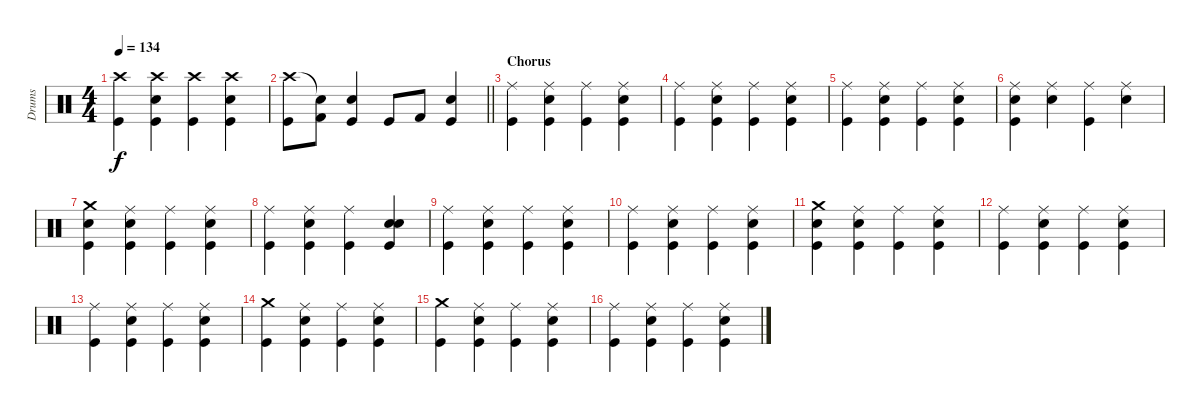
\track ("Drums" "Drums") {solo instrument percussion}
\staff {score}
\articulation defaults
\ts (4 4)
\tempo 134
\clef neutral
\ks c
("Crash high (hit)" "Kick (hit)").4{dy f} ("Crash high (hit)" "Kick (hit)" "Snare (hit) 2").4 ("Crash high (hit)" "Kick (hit)").4 ("Crash high (hit)" "Kick (hit)" "Snare (hit) 2").4 |
\barLineRight lightlight
("Crash high (hit)" "Kick (hit)").8 ("Snare (hit)"{t} "Kick (hit) 2").8 ("Kick (hit)" "Snare (hit) 2").4 "Kick (hit)".8 "Kick (hit) 2".8 ("Kick (hit)" "Snare (hit) 2").4 |
\section ("" "Chorus")
("Ride (middle)" "Kick (hit)").4 ("Ride (middle)" "Kick (hit)" "Snare (hit) 2").4 ("Ride (middle)" "Kick (hit)").4 ("Ride (middle)" "Kick (hit)" "Snare (hit) 2").4 |
("Ride (middle)" "Kick (hit)").4 ("Ride (middle)" "Kick (hit)" "Snare (hit) 2").4 ("Ride (middle)" "Kick (hit)").4 ("Ride (middle)" "Kick (hit)" "Snare (hit) 2").4 |
("Ride (middle)" "Kick (hit)").4 ("Ride (middle)" "Kick (hit)" "Snare (hit) 2").4 ("Ride (middle)" "Kick (hit)").4 ("Ride (middle)" "Kick (hit)" "Snare (hit) 2").4 |
("Ride (middle)" "Kick (hit)" "Snare (hit) 2").4 ("Ride (middle)" "Snare (hit) 2").4 ("Ride (middle)" "Kick (hit)").4 ("Ride (middle)" "Snare (hit) 2").4 |
("Crash medium (hit)" "Snare (hit) 2" "Kick (hit)").4 ("Ride (middle)" "Kick (hit)" "Snare (hit) 2").4 ("Ride (middle)" "Kick (hit)").4 ("Ride (middle)" "Kick (hit)" "Snare (hit) 2").4 |
("Ride (middle)" "Kick (hit)").4 ("Ride (middle)" "Kick (hit)" "Snare (hit) 2").4 ("Ride (middle)" "Kick (hit)").4 ("Snare (hit)" "Kick (hit)" "Snare (hit) 2").4 |
("Ride (middle)" "Kick (hit)").4 ("Ride (middle)" "Kick (hit)" "Snare (hit) 2").4 ("Ride (middle)" "Kick (hit)").4 ("Ride (middle)" "Kick (hit)" "Snare (hit) 2").4 |
("Ride (middle)" "Kick (hit)").4 ("Ride (middle)" "Kick (hit)" "Snare (hit) 2").4 ("Ride (middle)" "Kick (hit)").4 ("Ride (middle)" "Kick (hit)" "Snare (hit) 2").4 |
("Crash medium (hit)" "Snare (hit) 2" "Kick (hit)").4 ("Ride (middle)" "Kick (hit)" "Snare (hit) 2").4 ("Ride (middle)" "Kick (hit)").4 ("Ride (middle)" "Kick (hit)" "Snare (hit) 2").4 |
("Ride (middle)" "Kick (hit)").4 ("Ride (middle)" "Kick (hit)" "Snare (hit) 2").4 ("Ride (middle)" "Kick (hit)").4 ("Ride (middle)" "Kick (hit)" "Snare (hit) 2").4 |
("Ride (middle)" "Kick (hit)").4 ("Ride (middle)" "Kick (hit)" "Snare (hit) 2").4 ("Ride (middle)" "Kick (hit)").4 ("Ride (middle)" "Kick (hit)" "Snare (hit) 2").4 |
("Crash medium (hit)" "Kick (hit)").4 ("Ride (middle)" "Kick (hit)" "Snare (hit) 2").4 ("Ride (middle)" "Kick (hit)").4 ("Ride (middle)" "Kick (hit)" "Snare (hit) 2").4 |
("Crash medium (hit)" "Kick (hit)").4 ("Ride (middle)" "Kick (hit)" "Snare (hit) 2").4 ("Ride (middle)" "Kick (hit)").4 ("Ride (middle)" "Kick (hit)" "Snare (hit) 2").4 |
("Ride (middle)" "Kick (hit)").4 ("Ride (middle)" "Kick (hit)" "Snare (hit) 2").4 ("Ride (middle)" "Kick (hit)").4 ("Ride (middle)" "Kick (hit)" "Snare (hit) 2").4
